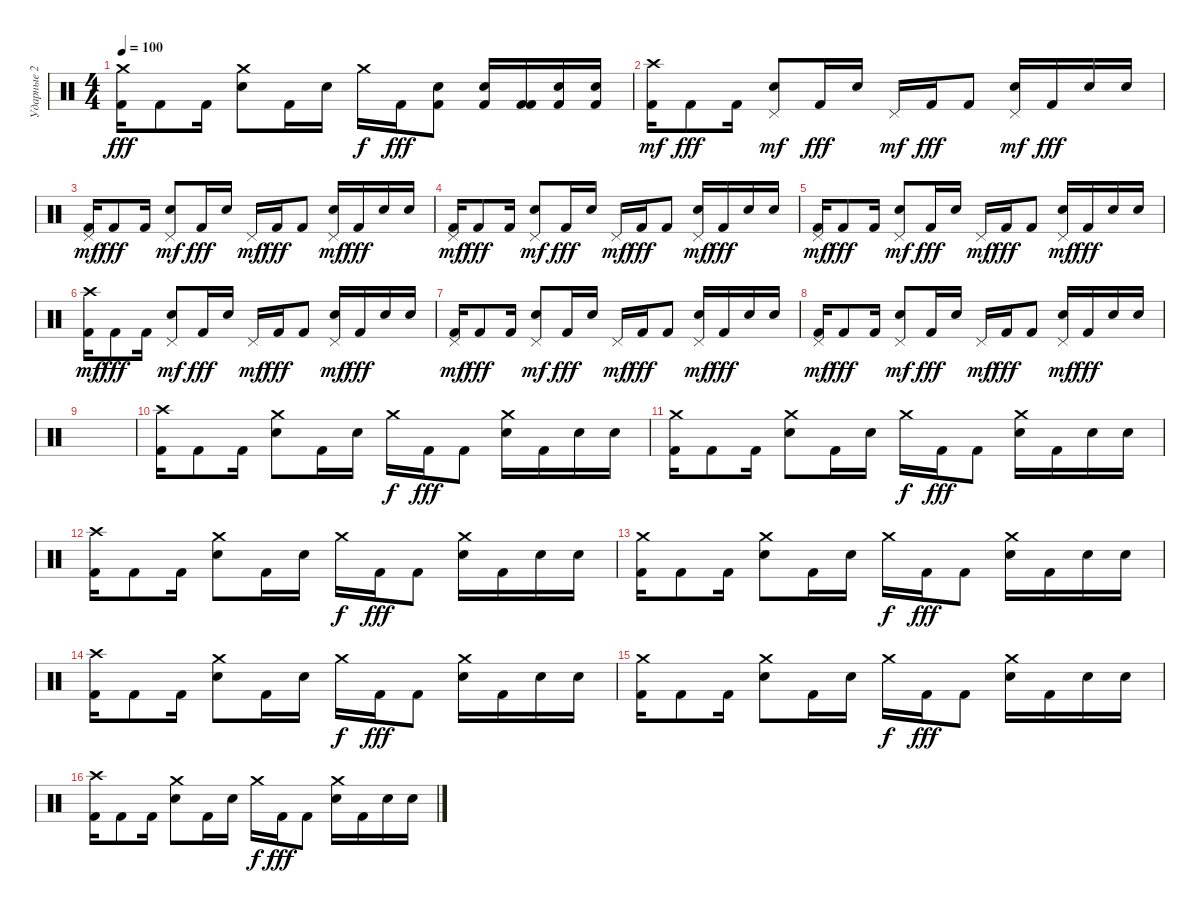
\track ("Ударные 2" "Ударные 2") {instrument percussion}
\staff {score}
\articulation defaults
\ts (4 4)
\tempo 100
\clef neutral
\ks c
("Kick (hit) 2" "Crash medium (hit)").16{dy fff} "Kick (hit) 2".8 "Kick (hit) 2".16 ("Snare (hit) 2" "Crash medium (hit)").8 "Kick (hit) 2".16 "Snare (hit) 2".16 "Crash medium (hit)".16{dy f} "Kick (hit) 2".16{dy fff} ("Kick (hit) 2" "Snare (hit) 2").8 ("Snare (hit) 2" "Kick (hit) 2").16 ("Kick (hit) 2" "Kick (hit) 2").16 ("Snare (hit) 2" "Kick (hit) 2").16 ("Snare (hit) 2" "Kick (hit) 2").16 |
("Kick (hit) 2" "Crash high (hit)").16{dy mf} "Kick (hit) 2".8{dy fff} "Kick (hit) 2".16 ("Snare (hit) 2" "Pedal Hi-Hat (hit)").8{dy mf} "Kick (hit) 2".16{dy fff} "Snare (hit) 2".16 "Pedal Hi-Hat (hit)".16{dy mf} "Kick (hit) 2".16{dy fff} "Kick (hit) 2".8 ("Snare (hit) 2" "Pedal Hi-Hat (hit)").16{dy mf} "Kick (hit) 2".16{dy fff} "Snare (hit) 2".16 "Snare (hit) 2".16 |
("Kick (hit) 2" "Pedal Hi-Hat (hit)").16{dy mf} "Kick (hit) 2".8{dy fff} "Kick (hit) 2".16 ("Snare (hit) 2" "Pedal Hi-Hat (hit)").8{dy mf} "Kick (hit) 2".16{dy fff} "Snare (hit) 2".16 "Pedal Hi-Hat (hit)".16{dy mf} "Kick (hit) 2".16{dy fff} "Kick (hit) 2".8 ("Snare (hit) 2" "Pedal Hi-Hat (hit)").16{dy mf} "Kick (hit) 2".16{dy fff} "Snare (hit) 2".16 "Snare (hit) 2".16 |
("Kick (hit) 2" "Pedal Hi-Hat (hit)").16{dy mf} "Kick (hit) 2".8{dy fff} "Kick (hit) 2".16 ("Snare (hit) 2" "Pedal Hi-Hat (hit)").8{dy mf} "Kick (hit) 2".16{dy fff} "Snare (hit) 2".16 "Pedal Hi-Hat (hit)".16{dy mf} "Kick (hit) 2".16{dy fff} "Kick (hit) 2".8 ("Snare (hit) 2" "Pedal Hi-Hat (hit)").16{dy mf} "Kick (hit) 2".16{dy fff} "Snare (hit) 2".16 "Snare (hit) 2".16 |
("Kick (hit) 2" "Pedal Hi-Hat (hit)").16{dy mf} "Kick (hit) 2".8{dy fff} "Kick (hit) 2".16 ("Snare (hit) 2" "Pedal Hi-Hat (hit)").8{dy mf} "Kick (hit) 2".16{dy fff} "Snare (hit) 2".16 "Pedal Hi-Hat (hit)".16{dy mf} "Kick (hit) 2".16{dy fff} "Kick (hit) 2".8 ("Snare (hit) 2" "Pedal Hi-Hat (hit)").16{dy mf} "Kick (hit) 2".16{dy fff} "Snare (hit) 2".16 "Snare (hit) 2".16 |
("Kick (hit) 2" "Crash high (hit)").16{dy mf} "Kick (hit) 2".8{dy fff} "Kick (hit) 2".16 ("Snare (hit) 2" "Pedal Hi-Hat (hit)").8{dy mf} "Kick (hit) 2".16{dy fff} "Snare (hit) 2".16 "Pedal Hi-Hat (hit)".16{dy mf} "Kick (hit) 2".16{dy fff} "Kick (hit) 2".8 ("Snare (hit) 2" "Pedal Hi-Hat (hit)").16{dy mf} "Kick (hit) 2".16{dy fff} "Snare (hit) 2".16 "Snare (hit) 2".16 |
("Kick (hit) 2" "Pedal Hi-Hat (hit)").16{dy mf} "Kick (hit) 2".8{dy fff} "Kick (hit) 2".16 ("Snare (hit) 2" "Pedal Hi-Hat (hit)").8{dy mf} "Kick (hit) 2".16{dy fff} "Snare (hit) 2".16 "Pedal Hi-Hat (hit)".16{dy mf} "Kick (hit) 2".16{dy fff} "Kick (hit) 2".8 ("Snare (hit) 2" "Pedal Hi-Hat (hit)").16{dy mf} "Kick (hit) 2".16{dy fff} "Snare (hit) 2".16 "Snare (hit) 2".16 |
("Kick (hit) 2" "Pedal Hi-Hat (hit)").16{dy mf} "Kick (hit) 2".8{dy fff} "Kick (hit) 2".16 ("Snare (hit) 2" "Pedal Hi-Hat (hit)").8{dy mf} "Kick (hit) 2".16{dy fff} "Snare (hit) 2".16 "Pedal Hi-Hat (hit)".16{dy mf} "Kick (hit) 2".16{dy fff} "Kick (hit) 2".8 ("Snare (hit) 2" "Pedal Hi-Hat (hit)").16{dy mf} "Kick (hit) 2".16{dy fff} "Snare (hit) 2".16 "Snare (hit) 2".16 |
|
("Kick (hit) 2" "Crash high (hit)").16 "Kick (hit) 2".8 "Kick (hit) 2".16 ("Snare (hit) 2" "Crash medium (hit)").8 "Kick (hit) 2".16 "Snare (hit) 2".16 "Crash medium (hit)".16{dy f} "Kick (hit) 2".16{dy fff} "Kick (hit) 2".8 ("Snare (hit) 2" "Crash medium (hit)").16 "Kick (hit) 2".16 "Snare (hit) 2".16 "Snare (hit) 2".16 |
("Kick (hit) 2" "Crash medium (hit)").16 "Kick (hit) 2".8 "Kick (hit) 2".16 ("Snare (hit) 2" "Crash medium (hit)").8 "Kick (hit) 2".16 "Snare (hit) 2".16 "Crash medium (hit)".16{dy f} "Kick (hit) 2".16{dy fff} "Kick (hit) 2".8 ("Snare (hit) 2" "Crash medium (hit)").16 "Kick (hit) 2".16 "Snare (hit) 2".16 "Snare (hit) 2".16 |
("Kick (hit) 2" "Crash high (hit)").16 "Kick (hit) 2".8 "Kick (hit) 2".16 ("Snare (hit) 2" "Crash medium (hit)").8 "Kick (hit) 2".16 "Snare (hit) 2".16 "Crash medium (hit)".16{dy f} "Kick (hit) 2".16{dy fff} "Kick (hit) 2".8 ("Snare (hit) 2" "Crash medium (hit)").16 "Kick (hit) 2".16 "Snare (hit) 2".16 "Snare (hit) 2".16 |
("Kick (hit) 2" "Crash medium (hit)").16 "Kick (hit) 2".8 "Kick (hit) 2".16 ("Snare (hit) 2" "Crash medium (hit)").8 "Kick (hit) 2".16 "Snare (hit) 2".16 "Crash medium (hit)".16{dy f} "Kick (hit) 2".16{dy fff} "Kick (hit) 2".8 ("Snare (hit) 2" "Crash medium (hit)").16 "Kick (hit) 2".16 "Snare (hit) 2".16 "Snare (hit) 2".16 |
("Kick (hit) 2" "Crash high (hit)").16 "Kick (hit) 2".8 "Kick (hit) 2".16 ("Snare (hit) 2" "Crash medium (hit)").8 "Kick (hit) 2".16 "Snare (hit) 2".16 "Crash medium (hit)".16{dy f} "Kick (hit) 2".16{dy fff} "Kick (hit) 2".8 ("Snare (hit) 2" "Crash medium (hit)").16 "Kick (hit) 2".16 "Snare (hit) 2".16 "Snare (hit) 2".16 |
("Kick (hit) 2" "Crash medium (hit)").16 "Kick (hit) 2".8 "Kick (hit) 2".16 ("Snare (hit) 2" "Crash medium (hit)").8 "Kick (hit) 2".16 "Snare (hit) 2".16 "Crash medium (hit)".16{dy f} "Kick (hit) 2".16{dy fff} "Kick (hit) 2".8 ("Snare (hit) 2" "Crash medium (hit)").16 "Kick (hit) 2".16 "Snare (hit) 2".16 "Snare (hit) 2".16 |
("Kick (hit) 2" "Crash high (hit)").16 "Kick (hit) 2".8 "Kick (hit) 2".16 ("Snare (hit) 2" "Crash medium (hit)").8 "Kick (hit) 2".16 "Snare (hit) 2".16 "Crash medium (hit)".16{dy f} "Kick (hit) 2".16{dy fff} "Kick (hit) 2".8 ("Snare (hit) 2" "Crash medium (hit)").16 "Kick (hit) 2".16 "Snare (hit) 2".16 "Snare (hit) 2".16
